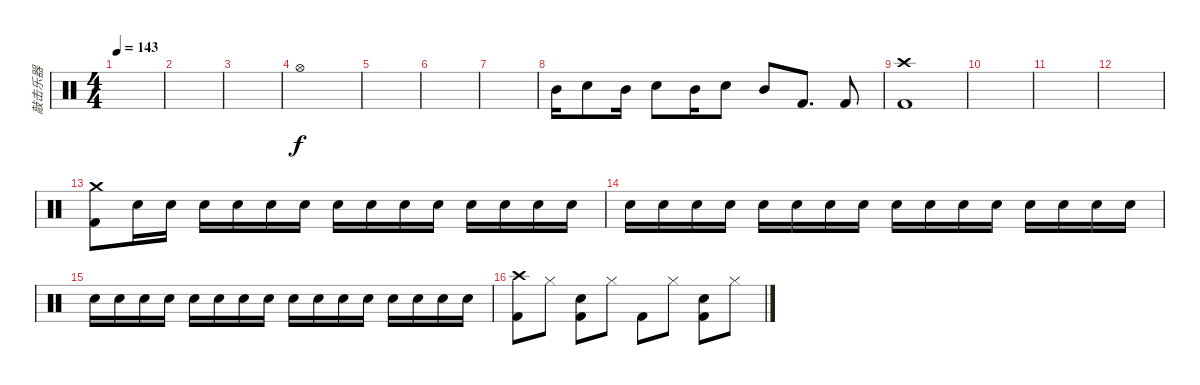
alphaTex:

\track ("敲击乐器" "敲击乐器") {instrument percussion}
\staff {score}
\articulation defaults
\ts (4 4)
\tempo 143
\clef neutral
\ks c
|
|
|
"Hi-Hat (open)".1 |
|
|
|
"Mid Tom (hit)".16 "Electric Snare (hit)".8 "Mid Tom (hit)".16 "Electric Snare (hit)".8 "Mid Tom (hit)".16 "Electric Snare (hit)".8 "Mid Tom (hit)".8 "Kick (hit) 2".8{d} "Kick (hit) 2".8 |
("Crash high (hit)" "Kick (hit) 2").1 |
|
|
|
("Crash medium (hit)" "Kick (hit) 2").8 "Electric Snare (hit)".16 "Electric Snare (hit)".16 "Electric Snare (hit)".16 "Electric Snare (hit)".16 "Electric Snare (hit)".16 "Electric Snare (hit)".16 "Electric Snare (hit)".16 "Electric Snare (hit)".16 "Electric Snare (hit)".16 "Electric Snare (hit)".16 "Electric Snare (hit)".16 "Electric Snare (hit)".16 "Electric Snare (hit)".16 "Electric Snare (hit)".16 |
"Electric Snare (hit)".16 "Electric Snare (hit)".16 "Electric Snare (hit)".16 "Electric Snare (hit)".16 "Electric Snare (hit)".16 "Electric Snare (hit)".16 "Electric Snare (hit)".16 "Electric Snare (hit)".16 "Electric Snare (hit)".16 "Electric Snare (hit)".16 "Electric Snare (hit)".16 "Electric Snare (hit)".16 "Electric Snare (hit)".16 "Electric Snare (hit)".16 "Electric Snare (hit)".16 "Electric Snare (hit)".16 |
"Electric Snare (hit)".16 "Electric Snare (hit)".16 "Electric Snare (hit)".16 "Electric Snare (hit)".16 "Electric Snare (hit)".16 "Electric Snare (hit)".16 "Electric Snare (hit)".16 "Electric Snare (hit)".16 "Electric Snare (hit)".16 "Electric Snare (hit)".16 "Electric Snare (hit)".16 "Electric Snare (hit)".16 "Electric Snare (hit)".16 "Electric Snare (hit)".16 "Electric Snare (hit)".16 "Electric Snare (hit)".16 |
("Crash high (hit)" "Kick (hit) 2").8 "Hi-Hat (closed)".8 ("Electric Snare (hit)" "Kick (hit) 2").8 "Hi-Hat (closed)".8 "Kick (hit) 2".8 "Hi-Hat (closed)".8 ("Electric Snare (hit)" "Kick (hit) 2").8 "Hi-Hat (closed)".8
